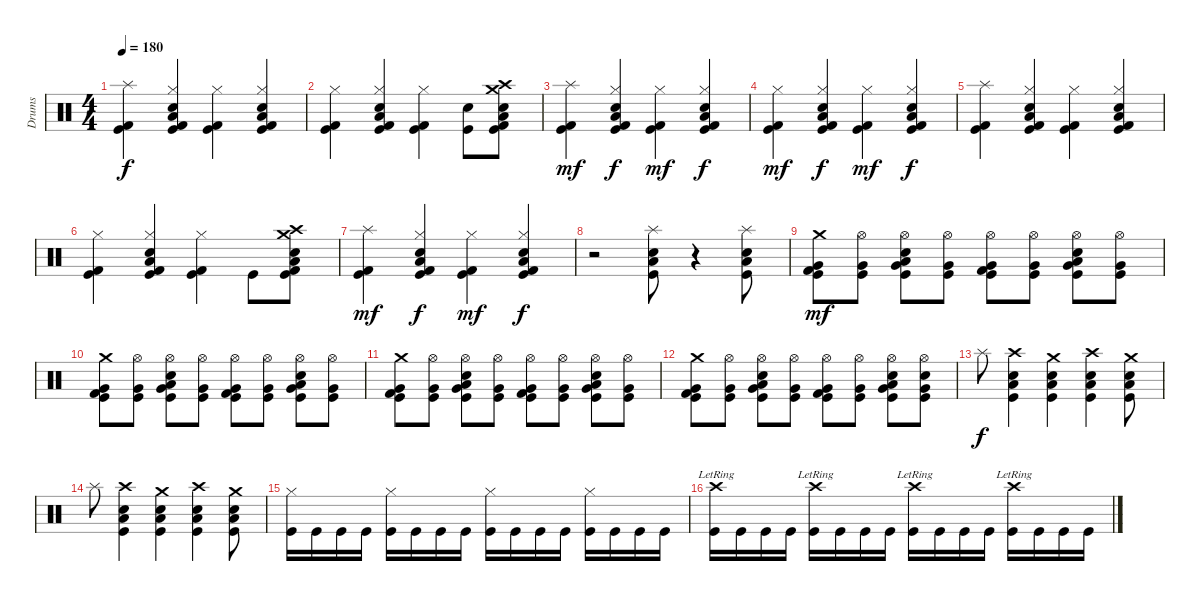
\track ("Drums" "Drums") {instrument percussion}
\staff {score}
\articulation defaults
\ts (4 4)
\tempo 180
\clef neutral
\ks c
("Splash (hit)" "Kick (hit) 2" "Kick (hit)").4{dy f} ("Hi-Hat (closed)" "Electric Snare (hit)" "Low Tom (hit)" "Kick (hit) 2" "Kick (hit)").4 ("Hi-Hat (closed)" "Kick (hit) 2" "Kick (hit)").4 ("Hi-Hat (closed)" "Electric Snare (hit)" "Low Tom (hit)" "Kick (hit) 2" "Kick (hit)").4 |
("Hi-Hat (closed)" "Kick (hit) 2" "Kick (hit)").4 ("Hi-Hat (closed)" "Electric Snare (hit)" "Low Tom (hit)" "Kick (hit) 2" "Kick (hit)").4 ("Hi-Hat (closed)" "Kick (hit) 2" "Kick (hit)").4 ("Electric Snare (hit)" "Kick (hit)").8 ("Crash high (hit)" "Electric Snare (hit)" "Low Tom (hit)" "Crash medium (hit)" "Kick (hit) 2" "Kick (hit)").8 |
("Splash (hit)" "Kick (hit) 2" "Kick (hit)").4{dy mf} ("Hi-Hat (closed)" "Electric Snare (hit)" "Low Tom (hit)" "Kick (hit) 2" "Kick (hit)").4{dy f} ("Hi-Hat (closed)" "Kick (hit) 2" "Kick (hit)").4{dy mf} ("Hi-Hat (closed)" "Electric Snare (hit)" "Low Tom (hit)" "Kick (hit) 2" "Kick (hit)").4{dy f} |
("Hi-Hat (closed)" "Kick (hit) 2" "Kick (hit)").4{dy mf} ("Hi-Hat (closed)" "Electric Snare (hit)" "Low Tom (hit)" "Kick (hit) 2" "Kick (hit)").4{dy f} ("Hi-Hat (closed)" "Kick (hit) 2" "Kick (hit)").4{dy mf} ("Hi-Hat (closed)" "Electric Snare (hit)" "Low Tom (hit)" "Kick (hit) 2" "Kick (hit)").4{dy f} |
("Splash (hit)" "Kick (hit) 2" "Kick (hit)").4 ("Hi-Hat (closed)" "Electric Snare (hit)" "Low Tom (hit)" "Kick (hit) 2" "Kick (hit)").4 ("Hi-Hat (closed)" "Kick (hit) 2" "Kick (hit)").4 ("Hi-Hat (closed)" "Electric Snare (hit)" "Low Tom (hit)" "Kick (hit) 2" "Kick (hit)").4 |
("Hi-Hat (closed)" "Kick (hit) 2" "Kick (hit)").4 ("Hi-Hat (closed)" "Electric Snare (hit)" "Low Tom (hit)" "Kick (hit) 2" "Kick (hit)").4 ("Hi-Hat (closed)" "Kick (hit) 2" "Kick (hit)").4 "Kick (hit)".8 ("Crash high (hit)" "Electric Snare (hit)" "Low Tom (hit)" "Crash medium (hit)" "Kick (hit) 2" "Kick (hit)").8 |
("Splash (hit)" "Kick (hit) 2" "Kick (hit)").4{dy mf} ("Hi-Hat (closed)" "Electric Snare (hit)" "Low Tom (hit)" "Kick (hit) 2" "Kick (hit)").4{dy f} ("Hi-Hat (closed)" "Kick (hit) 2" "Kick (hit)").4{dy mf} ("Hi-Hat (closed)" "Electric Snare (hit)" "Low Tom (hit)" "Kick (hit) 2" "Kick (hit)").4{dy f} |
r.2 ("Kick (hit)" "Splash (hit)" "Low Tom (hit)" "Electric Snare (hit)").8 r.4 ("Splash (hit)" "Kick (hit)" "Low Tom (hit)" "Electric Snare (hit)").8 |
("Crash medium (hit)" "Very Low Tom (hit)" "Kick (hit) 2" "Kick (hit)").8{dy mf} ("Hi-Hat (open)" "Very Low Tom (hit)" "Kick (hit)").8 ("Hi-Hat (open)" "Electric Snare (hit)" "Low Floor Tom (hit)" "Very Low Tom (hit)" "Kick (hit)").8 ("Hi-Hat (open)" "Very Low Tom (hit)" "Kick (hit)").8 ("Hi-Hat (open)" "Very Low Tom (hit)" "Kick (hit) 2" "Kick (hit)").8 ("Hi-Hat (open)" "Very Low Tom (hit)" "Kick (hit)").8 ("Hi-Hat (open)" "Electric Snare (hit)" "Low Floor Tom (hit)" "Very Low Tom (hit)" "Kick (hit)").8 ("Hi-Hat (open)" "Very Low Tom (hit)" "Kick (hit)").8 |
("Crash medium (hit)" "Very Low Tom (hit)" "Kick (hit) 2" "Kick (hit)").8 ("Hi-Hat (open)" "Very Low Tom (hit)" "Kick (hit)").8 ("Hi-Hat (open)" "Electric Snare (hit)" "Low Floor Tom (hit)" "Very Low Tom (hit)" "Kick (hit)").8 ("Hi-Hat (open)" "Very Low Tom (hit)" "Kick (hit)").8 ("Hi-Hat (open)" "Very Low Tom (hit)" "Kick (hit) 2" "Kick (hit)").8 ("Hi-Hat (open)" "Very Low Tom (hit)" "Kick (hit)").8 ("Hi-Hat (open)" "Electric Snare (hit)" "Low Floor Tom (hit)" "Very Low Tom (hit)" "Kick (hit)").8 ("Hi-Hat (open)" "Very Low Tom (hit)" "Kick (hit)").8 |
("Crash medium (hit)" "Very Low Tom (hit)" "Kick (hit) 2" "Kick (hit)").8 ("Hi-Hat (open)" "Very Low Tom (hit)" "Kick (hit)").8 ("Hi-Hat (open)" "Electric Snare (hit)" "Low Floor Tom (hit)" "Very Low Tom (hit)" "Kick (hit)").8 ("Hi-Hat (open)" "Very Low Tom (hit)" "Kick (hit)").8 ("Hi-Hat (open)" "Very Low Tom (hit)" "Kick (hit) 2" "Kick (hit)").8 ("Hi-Hat (open)" "Very Low Tom (hit)" "Kick (hit)").8 ("Hi-Hat (open)" "Electric Snare (hit)" "Low Floor Tom (hit)" "Very Low Tom (hit)" "Kick (hit)").8 ("Hi-Hat (open)" "Very Low Tom (hit)" "Kick (hit)").8 |
("Crash medium (hit)" "Very Low Tom (hit)" "Kick (hit) 2" "Kick (hit)").8 ("Hi-Hat (open)" "Very Low Tom (hit)" "Kick (hit)").8 ("Hi-Hat (open)" "Electric Snare (hit)" "Low Floor Tom (hit)" "Very Low Tom (hit)" "Kick (hit)").8 ("Hi-Hat (open)" "Very Low Tom (hit)" "Kick (hit)").8 ("Hi-Hat (open)" "Very Low Tom (hit)" "Kick (hit) 2" "Kick (hit)").8 ("Hi-Hat (open)" "Very Low Tom (hit)" "Kick (hit)").8 ("Hi-Hat (open)" "Electric Snare (hit)" "Low Floor Tom (hit)" "Very Low Tom (hit)" "Kick (hit)").8 ("Hi-Hat (open)" "Electric Snare (hit)" "Very Low Tom (hit)" "Kick (hit)").8 |
"Splash (hit)".8{dy f} ("Kick (hit)" "Crash high (hit)" "Low Tom (hit)" "Electric Snare (hit)").4 ("Kick (hit)" "Crash medium (hit)" "Low Tom (hit)" "Electric Snare (hit)").4 ("Kick (hit)" "Crash high (hit)" "Low Tom (hit)" "Electric Snare (hit)").4 ("Kick (hit)" "Crash medium (hit)" "Low Tom (hit)" "Electric Snare (hit)").8 |
"Splash (hit)".8 ("Kick (hit)" "Crash high (hit)" "Low Tom (hit)" "Electric Snare (hit)").4 ("Kick (hit)" "Crash medium (hit)" "Low Tom (hit)" "Electric Snare (hit)").4 ("Kick (hit)" "Crash high (hit)" "Low Tom (hit)" "Electric Snare (hit)").4 ("Kick (hit)" "Crash medium (hit)" "Low Tom (hit)" "Electric Snare (hit)").8 |
("Hi-Hat (closed)" "Kick (hit)").16 "Kick (hit)".16 "Kick (hit)".16 "Kick (hit)".16 ("Hi-Hat (closed)" "Kick (hit)").16 "Kick (hit)".16 "Kick (hit)".16 "Kick (hit)".16 ("Hi-Hat (closed)" "Kick (hit)").16 "Kick (hit)".16 "Kick (hit)".16 "Kick (hit)".16 ("Hi-Hat (closed)" "Kick (hit)").16 "Kick (hit)".16 "Kick (hit)".16 "Kick (hit)".16 |
("Crash high (hit)"{lr} "Kick (hit)").16 "Kick (hit)".16 "Kick (hit)".16 "Kick (hit)".16 ("Crash high (hit)"{lr} "Kick (hit)").16 "Kick (hit)".16 "Kick (hit)".16 "Kick (hit)".16 ("Crash high (hit)"{lr} "Kick (hit)").16 "Kick (hit)".16 "Kick (hit)".16 "Kick (hit)".16 ("Crash high (hit)"{lr} "Kick (hit)").16 "Kick (hit)".16 "Kick (hit)".16 "Kick (hit)".16
